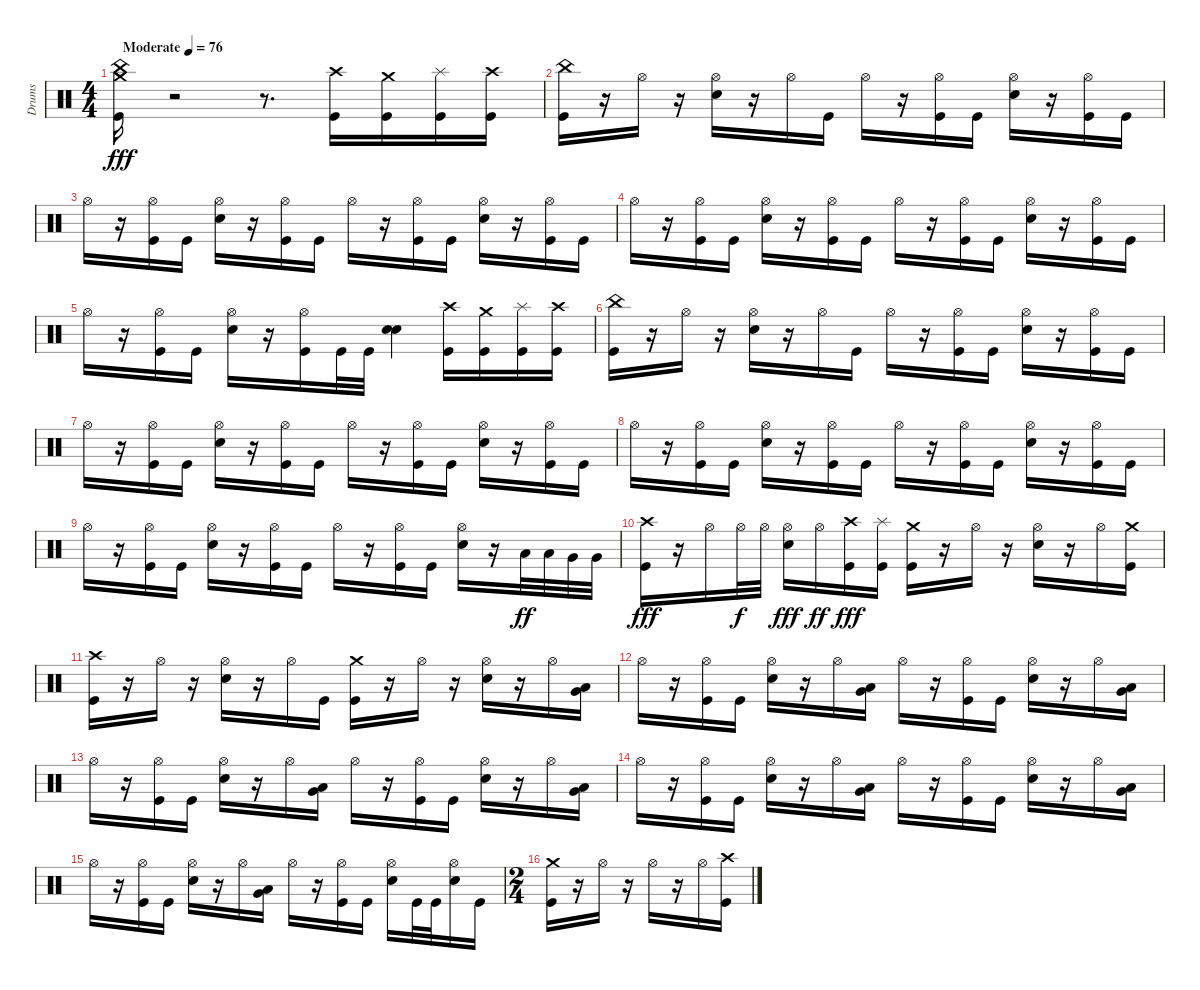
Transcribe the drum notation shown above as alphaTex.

\track ("Drums" "Drums") {instrument percussion}
\staff {score}
\articulation defaults
\ts (4 4)
\tempo (76 "Moderate")
\clef neutral
\ks c
("Kick (hit)" "Crash medium (hit)" "China (hit)").16{dy fff} r.2 r.8{d} ("Kick (hit)" "Crash high (hit)").16 ("Kick (hit)" "Crash medium (hit)").16 ("Kick (hit)" "Splash (hit)").16 ("Kick (hit)" "Crash high (hit)").16 |
("Kick (hit)" "China (hit)").16 r.16 "Hi-Hat (open)".16 r.16 ("Electric Snare (hit)" "Hi-Hat (open)").16 r.16 "Hi-Hat (open)".16 "Kick (hit)".16 "Hi-Hat (open)".16 r.16 ("Kick (hit)" "Hi-Hat (open)").16 "Kick (hit)".16 ("Electric Snare (hit)" "Hi-Hat (open)").16 r.16 ("Kick (hit)" "Hi-Hat (open)").16 "Kick (hit)".16 |
"Hi-Hat (open)".16 r.16 ("Kick (hit)" "Hi-Hat (open)").16 "Kick (hit)".16 ("Electric Snare (hit)" "Hi-Hat (open)").16 r.16 ("Kick (hit)" "Hi-Hat (open)").16 "Kick (hit)".16 "Hi-Hat (open)".16 r.16 ("Kick (hit)" "Hi-Hat (open)").16 "Kick (hit)".16 ("Electric Snare (hit)" "Hi-Hat (open)").16 r.16 ("Kick (hit)" "Hi-Hat (open)").16 "Kick (hit)".16 |
"Hi-Hat (open)".16 r.16 ("Kick (hit)" "Hi-Hat (open)").16 "Kick (hit)".16 ("Hi-Hat (open)" "Electric Snare (hit)").16 r.16 ("Kick (hit)" "Hi-Hat (open)").16 "Kick (hit)".16 "Hi-Hat (open)".16 r.16 ("Kick (hit)" "Hi-Hat (open)").16 "Kick (hit)".16 ("Hi-Hat (open)" "Electric Snare (hit)").16 r.16 ("Kick (hit)" "Hi-Hat (open)").16 "Kick (hit)".16 |
"Hi-Hat (open)".16 r.16 ("Kick (hit)" "Hi-Hat (open)").16 "Kick (hit)".16 ("Hi-Hat (open)" "Electric Snare (hit)").16 r.16 ("Kick (hit)" "Hi-Hat (open)").16 "Kick (hit)".32 "Kick (hit)".32 ("Electric Snare (hit)" "Electric Snare (hit)").4 ("Kick (hit)" "Crash high (hit)").16 ("Kick (hit)" "Crash medium (hit)").16 ("Kick (hit)" "Splash (hit)").16 ("Kick (hit)" "Crash high (hit)").16 |
("Kick (hit)" "China (hit)").16 r.16 "Hi-Hat (open)".16 r.16 ("Hi-Hat (open)" "Electric Snare (hit)").16 r.16 "Hi-Hat (open)".16 "Kick (hit)".16 "Hi-Hat (open)".16 r.16 ("Kick (hit)" "Hi-Hat (open)").16 "Kick (hit)".16 ("Hi-Hat (open)" "Electric Snare (hit)").16 r.16 ("Kick (hit)" "Hi-Hat (open)").16 "Kick (hit)".16 |
"Hi-Hat (open)".16 r.16 ("Kick (hit)" "Hi-Hat (open)").16 "Kick (hit)".16 ("Hi-Hat (open)" "Electric Snare (hit)").16 r.16 ("Kick (hit)" "Hi-Hat (open)").16 "Kick (hit)".16 "Hi-Hat (open)".16 r.16 ("Kick (hit)" "Hi-Hat (open)").16 "Kick (hit)".16 ("Hi-Hat (open)" "Electric Snare (hit)").16 r.16 ("Kick (hit)" "Hi-Hat (open)").16 "Kick (hit)".16 |
"Hi-Hat (open)".16 r.16 ("Kick (hit)" "Hi-Hat (open)").16 "Kick (hit)".16 ("Electric Snare (hit)" "Hi-Hat (open)").16 r.16 ("Kick (hit)" "Hi-Hat (open)").16 "Kick (hit)".16 "Hi-Hat (open)".16 r.16 ("Kick (hit)" "Hi-Hat (open)").16 "Kick (hit)".16 ("Electric Snare (hit)" "Hi-Hat (open)").16 r.16 ("Kick (hit)" "Hi-Hat (open)").16 "Kick (hit)".16 |
"Hi-Hat (open)".16 r.16 ("Kick (hit)" "Hi-Hat (open)").16 "Kick (hit)".16 ("Hi-Hat (open)" "Electric Snare (hit)").16 r.16 ("Kick (hit)" "Hi-Hat (open)").16 "Kick (hit)".16 "Hi-Hat (open)".16 r.16 ("Kick (hit)" "Hi-Hat (open)").16 "Kick (hit)".16 ("Hi-Hat (open)" "Electric Snare (hit)").16 r.16 "Low Tom (hit)".32{dy ff} "Low Tom (hit)".32 "Very Low Tom (hit)".32 "Very Low Tom (hit)".32 |
("Kick (hit)" "Crash high (hit)").16{dy fff} r.16 "Hi-Hat (open)".16 "Hi-Hat (open)".32{dy f} "Hi-Hat (open)".32 ("Electric Snare (hit)" "Hi-Hat (open)").16{dy fff} "Hi-Hat (open)".16{dy ff} ("Kick (hit)" "Crash high (hit)").16{dy fff} ("Kick (hit)" "Splash (hit)").16 ("Kick (hit)" "Crash medium (hit)").16 r.16 "Hi-Hat (open)".16 r.16 ("Electric Snare (hit)" "Hi-Hat (open)").16 r.16 "Hi-Hat (open)".16 ("Kick (hit)" "Crash medium (hit)").16 |
("Kick (hit)" "Crash high (hit)").16 r.16 "Hi-Hat (open)".16 r.16 ("Electric Snare (hit)" "Hi-Hat (open)").16 r.16 "Hi-Hat (open)".16 "Kick (hit)".16 ("Kick (hit)" "Crash medium (hit)").16 r.16 "Hi-Hat (open)".16 r.16 ("Electric Snare (hit)" "Hi-Hat (open)").16 r.16 "Hi-Hat (open)".16 ("Very Low Tom (hit)" "Low Floor Tom (hit)").16 |
"Hi-Hat (open)".16 r.16 ("Kick (hit)" "Hi-Hat (open)").16 "Kick (hit)".16 ("Electric Snare (hit)" "Hi-Hat (open)").16 r.16 "Hi-Hat (open)".16 ("Very Low Tom (hit)" "Low Floor Tom (hit)").16 "Hi-Hat (open)".16 r.16 ("Kick (hit)" "Hi-Hat (open)").16 "Kick (hit)".16 ("Electric Snare (hit)" "Hi-Hat (open)").16 r.16 "Hi-Hat (open)".16 ("Low Floor Tom (hit)" "Very Low Tom (hit)").16 |
"Hi-Hat (open)".16 r.16 ("Kick (hit)" "Hi-Hat (open)").16 "Kick (hit)".16 ("Hi-Hat (open)" "Electric Snare (hit)").16 r.16 "Hi-Hat (open)".16 ("Low Floor Tom (hit)" "Very Low Tom (hit)").16 "Hi-Hat (open)".16 r.16 ("Kick (hit)" "Hi-Hat (open)").16 "Kick (hit)".16 ("Hi-Hat (open)" "Electric Snare (hit)").16 r.16 "Hi-Hat (open)".16 ("Very Low Tom (hit)" "Low Floor Tom (hit)").16 |
"Hi-Hat (open)".16 r.16 ("Kick (hit)" "Hi-Hat (open)").16 "Kick (hit)".16 ("Hi-Hat (open)" "Electric Snare (hit)").16 r.16 "Hi-Hat (open)".16 ("Low Floor Tom (hit)" "Very Low Tom (hit)").16 "Hi-Hat (open)".16 r.16 ("Kick (hit)" "Hi-Hat (open)").16 "Kick (hit)".16 ("Hi-Hat (open)" "Electric Snare (hit)").16 r.16 "Hi-Hat (open)".16 ("Very Low Tom (hit)" "Low Floor Tom (hit)").16 |
"Hi-Hat (open)".16 r.16 ("Kick (hit)" "Hi-Hat (open)").16 "Kick (hit)".16 ("Hi-Hat (open)" "Electric Snare (hit)").16 r.16 "Hi-Hat (open)".16 ("Low Floor Tom (hit)" "Very Low Tom (hit)").16 "Hi-Hat (open)".16 r.16 ("Kick (hit)" "Hi-Hat (open)").16 "Kick (hit)".16 ("Hi-Hat (open)" "Electric Snare (hit)").16 "Kick (hit)".32 "Kick (hit)".32 ("Electric Snare (hit)" "Hi-Hat (open)").16 "Kick (hit)".16 |
\ts (2 4)
("Kick (hit)" "Crash medium (hit)").16 r.16 "Hi-Hat (open)".16 r.16 "Hi-Hat (open)".16 r.16 "Hi-Hat (open)".16 ("Kick (hit)" "Crash high (hit)").16
